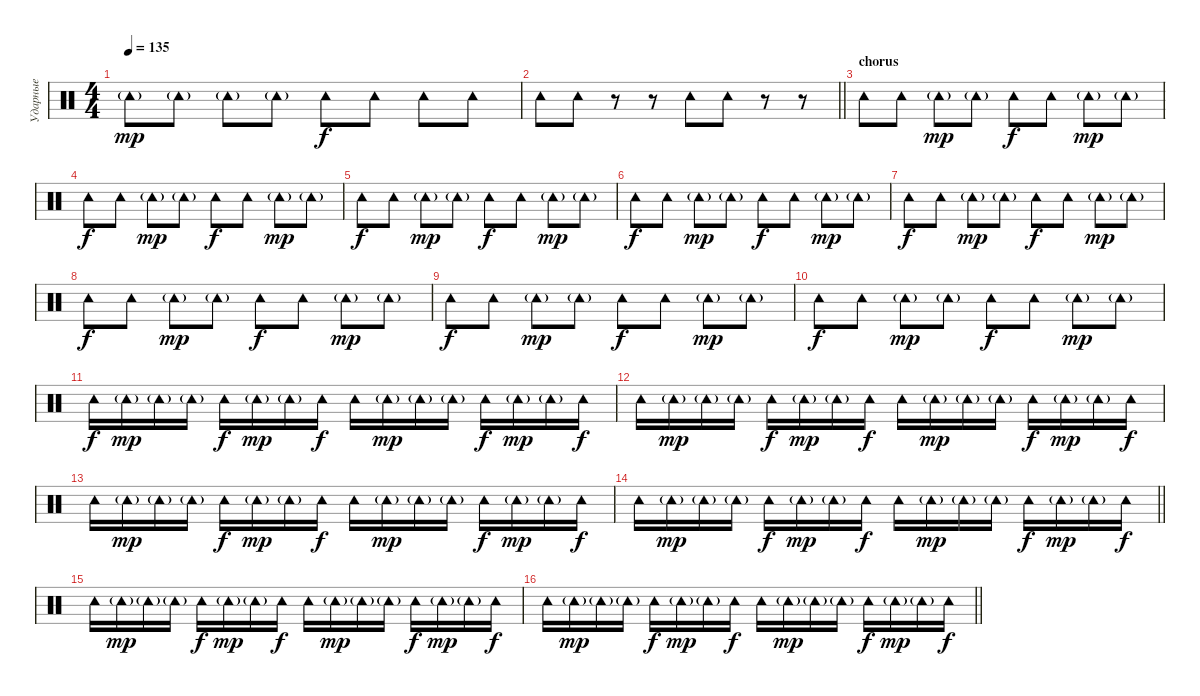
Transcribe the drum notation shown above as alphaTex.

\track ("Ударные" "Ударные") {instrument percussion}
\staff {score}
\articulation defaults
\ts (4 4)
\tempo 135
\clef neutral
\ks c "Tambourine (hit)"{g}.8{dy mp} "Tambourine (hit)"{g}.8 "Tambourine (hit)"{g}.8 "Tambourine (hit)"{g}.8 "Tambourine (hit)".8{dy f} "Tambourine (hit)".8 "Tambourine (hit)".8 "Tambourine (hit)".8
|
\barLineRight lightlight "Tambourine (hit)".8 "Tambourine (hit)".8
r.8 r.8 "Tambourine (hit)".8 "Tambourine (hit)".8 r.8 r.8 |
\section ("" "chorus")
"Tambourine (hit)".8 "Tambourine (hit)".8 "Tambourine (hit)"{g}.8{dy mp} "Tambourine (hit)"{g}.8 "Tambourine (hit)".8{dy f} "Tambourine (hit)".8 "Tambourine (hit)"{g}.8{dy mp} "Tambourine (hit)"{g}.8 |
"Tambourine (hit)".8{dy f} "Tambourine (hit)".8 "Tambourine (hit)"{g}.8{dy mp} "Tambourine (hit)"{g}.8 "Tambourine (hit)".8{dy f} "Tambourine (hit)".8 "Tambourine (hit)"{g}.8{dy mp} "Tambourine (hit)"{g}.8 |
"Tambourine (hit)".8{dy f} "Tambourine (hit)".8 "Tambourine (hit)"{g}.8{dy mp} "Tambourine (hit)"{g}.8 "Tambourine (hit)".8{dy f} "Tambourine (hit)".8 "Tambourine (hit)"{g}.8{dy mp} "Tambourine (hit)"{g}.8 |
"Tambourine (hit)".8{dy f} "Tambourine (hit)".8 "Tambourine (hit)"{g}.8{dy mp} "Tambourine (hit)"{g}.8 "Tambourine (hit)".8{dy f} "Tambourine (hit)".8 "Tambourine (hit)"{g}.8{dy mp} "Tambourine (hit)"{g}.8 |
"Tambourine (hit)".8{dy f} "Tambourine (hit)".8 "Tambourine (hit)"{g}.8{dy mp} "Tambourine (hit)"{g}.8 "Tambourine (hit)".8{dy f} "Tambourine (hit)".8 "Tambourine (hit)"{g}.8{dy mp} "Tambourine (hit)"{g}.8 |
"Tambourine (hit)".8{dy f} "Tambourine (hit)".8 "Tambourine (hit)"{g}.8{dy mp} "Tambourine (hit)"{g}.8 "Tambourine (hit)".8{dy f} "Tambourine (hit)".8 "Tambourine (hit)"{g}.8{dy mp} "Tambourine (hit)"{g}.8 |
"Tambourine (hit)".8{dy f} "Tambourine (hit)".8 "Tambourine (hit)"{g}.8{dy mp} "Tambourine (hit)"{g}.8 "Tambourine (hit)".8{dy f} "Tambourine (hit)".8 "Tambourine (hit)"{g}.8{dy mp} "Tambourine (hit)"{g}.8 |
"Tambourine (hit)".8{dy f} "Tambourine (hit)".8 "Tambourine (hit)"{g}.8{dy mp} "Tambourine (hit)"{g}.8 "Tambourine (hit)".8{dy f} "Tambourine (hit)".8 "Tambourine (hit)"{g}.8{dy mp} "Tambourine (hit)"{g}.8 |
"Tambourine (hit)".16{dy f} "Tambourine (hit)"{g}.16{dy mp} "Tambourine (hit)"{g}.16 "Tambourine (hit)"{g}.16 "Tambourine (hit)".16{dy f} "Tambourine (hit)"{g}.16{dy mp} "Tambourine (hit)"{g}.16 "Tambourine (hit)".16{dy f} "Tambourine (hit)".16 "Tambourine (hit)"{g}.16{dy mp} "Tambourine (hit)"{g}.16 "Tambourine (hit)"{g}.16 "Tambourine (hit)".16{dy f} "Tambourine (hit)"{g}.16{dy mp} "Tambourine (hit)"{g}.16 "Tambourine (hit)".16{dy f} |
"Tambourine (hit)".16 "Tambourine (hit)"{g}.16{dy mp} "Tambourine (hit)"{g}.16 "Tambourine (hit)"{g}.16 "Tambourine (hit)".16{dy f} "Tambourine (hit)"{g}.16{dy mp} "Tambourine (hit)"{g}.16 "Tambourine (hit)".16{dy f} "Tambourine (hit)".16 "Tambourine (hit)"{g}.16{dy mp} "Tambourine (hit)"{g}.16 "Tambourine (hit)"{g}.16 "Tambourine (hit)".16{dy f} "Tambourine (hit)"{g}.16{dy mp} "Tambourine (hit)"{g}.16 "Tambourine (hit)".16{dy f} |
"Tambourine (hit)".16 "Tambourine (hit)"{g}.16{dy mp} "Tambourine (hit)"{g}.16 "Tambourine (hit)"{g}.16 "Tambourine (hit)".16{dy f} "Tambourine (hit)"{g}.16{dy mp} "Tambourine (hit)"{g}.16 "Tambourine (hit)".16{dy f} "Tambourine (hit)".16 "Tambourine (hit)"{g}.16{dy mp} "Tambourine (hit)"{g}.16 "Tambourine (hit)"{g}.16 "Tambourine (hit)".16{dy f} "Tambourine (hit)"{g}.16{dy mp} "Tambourine (hit)"{g}.16 "Tambourine (hit)".16{dy f} |
\barLineRight lightlight "Tambourine (hit)".16 "Tambourine (hit)"{g}.16{dy mp} "Tambourine (hit)"{g}.16 "Tambourine (hit)"{g}.16 "Tambourine (hit)".16{dy f} "Tambourine (hit)"{g}.16{dy mp} "Tambourine (hit)"{g}.16 "Tambourine (hit)".16{dy f} "Tambourine (hit)".16 "Tambourine (hit)"{g}.16{dy mp} "Tambourine (hit)"{g}.16 "Tambourine (hit)"{g}.16 "Tambourine (hit)".16{dy f} "Tambourine (hit)"{g}.16{dy mp} "Tambourine (hit)"{g}.16 "Tambourine (hit)".16{dy f}
|
"Tambourine (hit)".16 "Tambourine (hit)"{g}.16{dy mp} "Tambourine (hit)"{g}.16 "Tambourine (hit)"{g}.16 "Tambourine (hit)".16{dy f} "Tambourine (hit)"{g}.16{dy mp} "Tambourine (hit)"{g}.16 "Tambourine (hit)".16{dy f} "Tambourine (hit)".16 "Tambourine (hit)"{g}.16{dy mp} "Tambourine (hit)"{g}.16 "Tambourine (hit)"{g}.16 "Tambourine (hit)".16{dy f} "Tambourine (hit)"{g}.16{dy mp} "Tambourine (hit)"{g}.16 "Tambourine (hit)".16{dy f} |
\barLineRight lightlight "Tambourine (hit)".16 "Tambourine (hit)"{g}.16{dy mp} "Tambourine (hit)"{g}.16 "Tambourine (hit)"{g}.16 "Tambourine (hit)".16{dy f} "Tambourine (hit)"{g}.16{dy mp} "Tambourine (hit)"{g}.16 "Tambourine (hit)".16{dy f} "Tambourine (hit)".16 "Tambourine (hit)"{g}.16{dy mp} "Tambourine (hit)"{g}.16 "Tambourine (hit)"{g}.16 "Tambourine (hit)".16{dy f} "Tambourine (hit)"{g}.16{dy mp} "Tambourine (hit)"{g}.16 "Tambourine (hit)".16{dy f}
